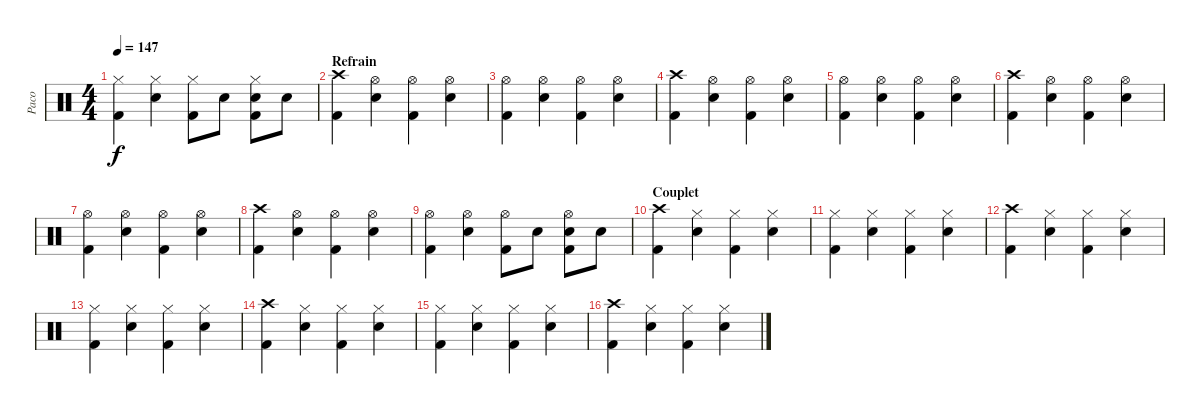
\track ("Paco" "Paco") {instrument percussion}
\staff {score}
\articulation defaults
\ts (4 4)
\tempo 147
\clef neutral
\ks c
("Hi-Hat (closed)" "Kick (hit) 2").4{dy f} ("Hi-Hat (closed)" "Snare (hit) 2").4 ("Hi-Hat (closed)" "Kick (hit) 2").8 "Snare (hit) 2".8 ("Hi-Hat (closed)" "Snare (hit) 2" "Kick (hit) 2").8 "Snare (hit) 2".8 |
\section ("" "Refrain")
("Crash high (hit)" "Kick (hit) 2").4 ("Hi-Hat (open)" "Snare (hit) 2").4 ("Hi-Hat (open)" "Kick (hit) 2").4 ("Hi-Hat (open)" "Snare (hit) 2").4 |
("Hi-Hat (open)" "Kick (hit) 2").4 ("Hi-Hat (open)" "Snare (hit) 2").4 ("Hi-Hat (open)" "Kick (hit) 2").4 ("Hi-Hat (open)" "Snare (hit) 2").4 |
("Crash high (hit)" "Kick (hit) 2").4 ("Hi-Hat (open)" "Snare (hit) 2").4 ("Hi-Hat (open)" "Kick (hit) 2").4 ("Hi-Hat (open)" "Snare (hit) 2").4 |
("Hi-Hat (open)" "Kick (hit) 2").4 ("Hi-Hat (open)" "Snare (hit) 2").4 ("Hi-Hat (open)" "Kick (hit) 2").4 ("Hi-Hat (open)" "Snare (hit) 2").4 |
("Crash high (hit)" "Kick (hit) 2").4 ("Hi-Hat (open)" "Snare (hit) 2").4 ("Hi-Hat (open)" "Kick (hit) 2").4 ("Hi-Hat (open)" "Snare (hit) 2").4 |
("Hi-Hat (open)" "Kick (hit) 2").4 ("Hi-Hat (open)" "Snare (hit) 2").4 ("Hi-Hat (open)" "Kick (hit) 2").4 ("Hi-Hat (open)" "Snare (hit) 2").4 |
("Crash high (hit)" "Kick (hit) 2").4 ("Hi-Hat (open)" "Snare (hit) 2").4 ("Hi-Hat (open)" "Kick (hit) 2").4 ("Hi-Hat (open)" "Snare (hit) 2").4 |
("Hi-Hat (open)" "Kick (hit) 2").4 ("Hi-Hat (open)" "Snare (hit) 2").4 ("Hi-Hat (open)" "Kick (hit) 2").8 "Snare (hit) 2".8 ("Hi-Hat (open)" "Snare (hit) 2" "Kick (hit) 2").8 "Snare (hit) 2".8 |
\section ("" "Couplet")
("Crash high (hit)" "Kick (hit) 2").4 ("Hi-Hat (closed)" "Snare (hit) 2").4 ("Hi-Hat (closed)" "Kick (hit) 2").4 ("Hi-Hat (closed)" "Snare (hit) 2").4 |
("Hi-Hat (closed)" "Kick (hit) 2").4 ("Hi-Hat (closed)" "Snare (hit) 2").4 ("Hi-Hat (closed)" "Kick (hit) 2").4 ("Hi-Hat (closed)" "Snare (hit) 2").4 |
("Crash high (hit)" "Kick (hit) 2").4 ("Hi-Hat (closed)" "Snare (hit) 2").4 ("Hi-Hat (closed)" "Kick (hit) 2").4 ("Hi-Hat (closed)" "Snare (hit) 2").4 |
("Hi-Hat (closed)" "Kick (hit) 2").4 ("Hi-Hat (closed)" "Snare (hit) 2").4 ("Hi-Hat (closed)" "Kick (hit) 2").4 ("Hi-Hat (closed)" "Snare (hit) 2").4 |
("Crash high (hit)" "Kick (hit) 2").4 ("Hi-Hat (closed)" "Snare (hit) 2").4 ("Hi-Hat (closed)" "Kick (hit) 2").4 ("Hi-Hat (closed)" "Snare (hit) 2").4 |
("Hi-Hat (closed)" "Kick (hit) 2").4 ("Hi-Hat (closed)" "Snare (hit) 2").4 ("Hi-Hat (closed)" "Kick (hit) 2").4 ("Hi-Hat (closed)" "Snare (hit) 2").4 |
("Crash high (hit)" "Kick (hit) 2").4 ("Hi-Hat (closed)" "Snare (hit) 2").4 ("Hi-Hat (closed)" "Kick (hit) 2").4 ("Hi-Hat (closed)" "Snare (hit) 2").4
